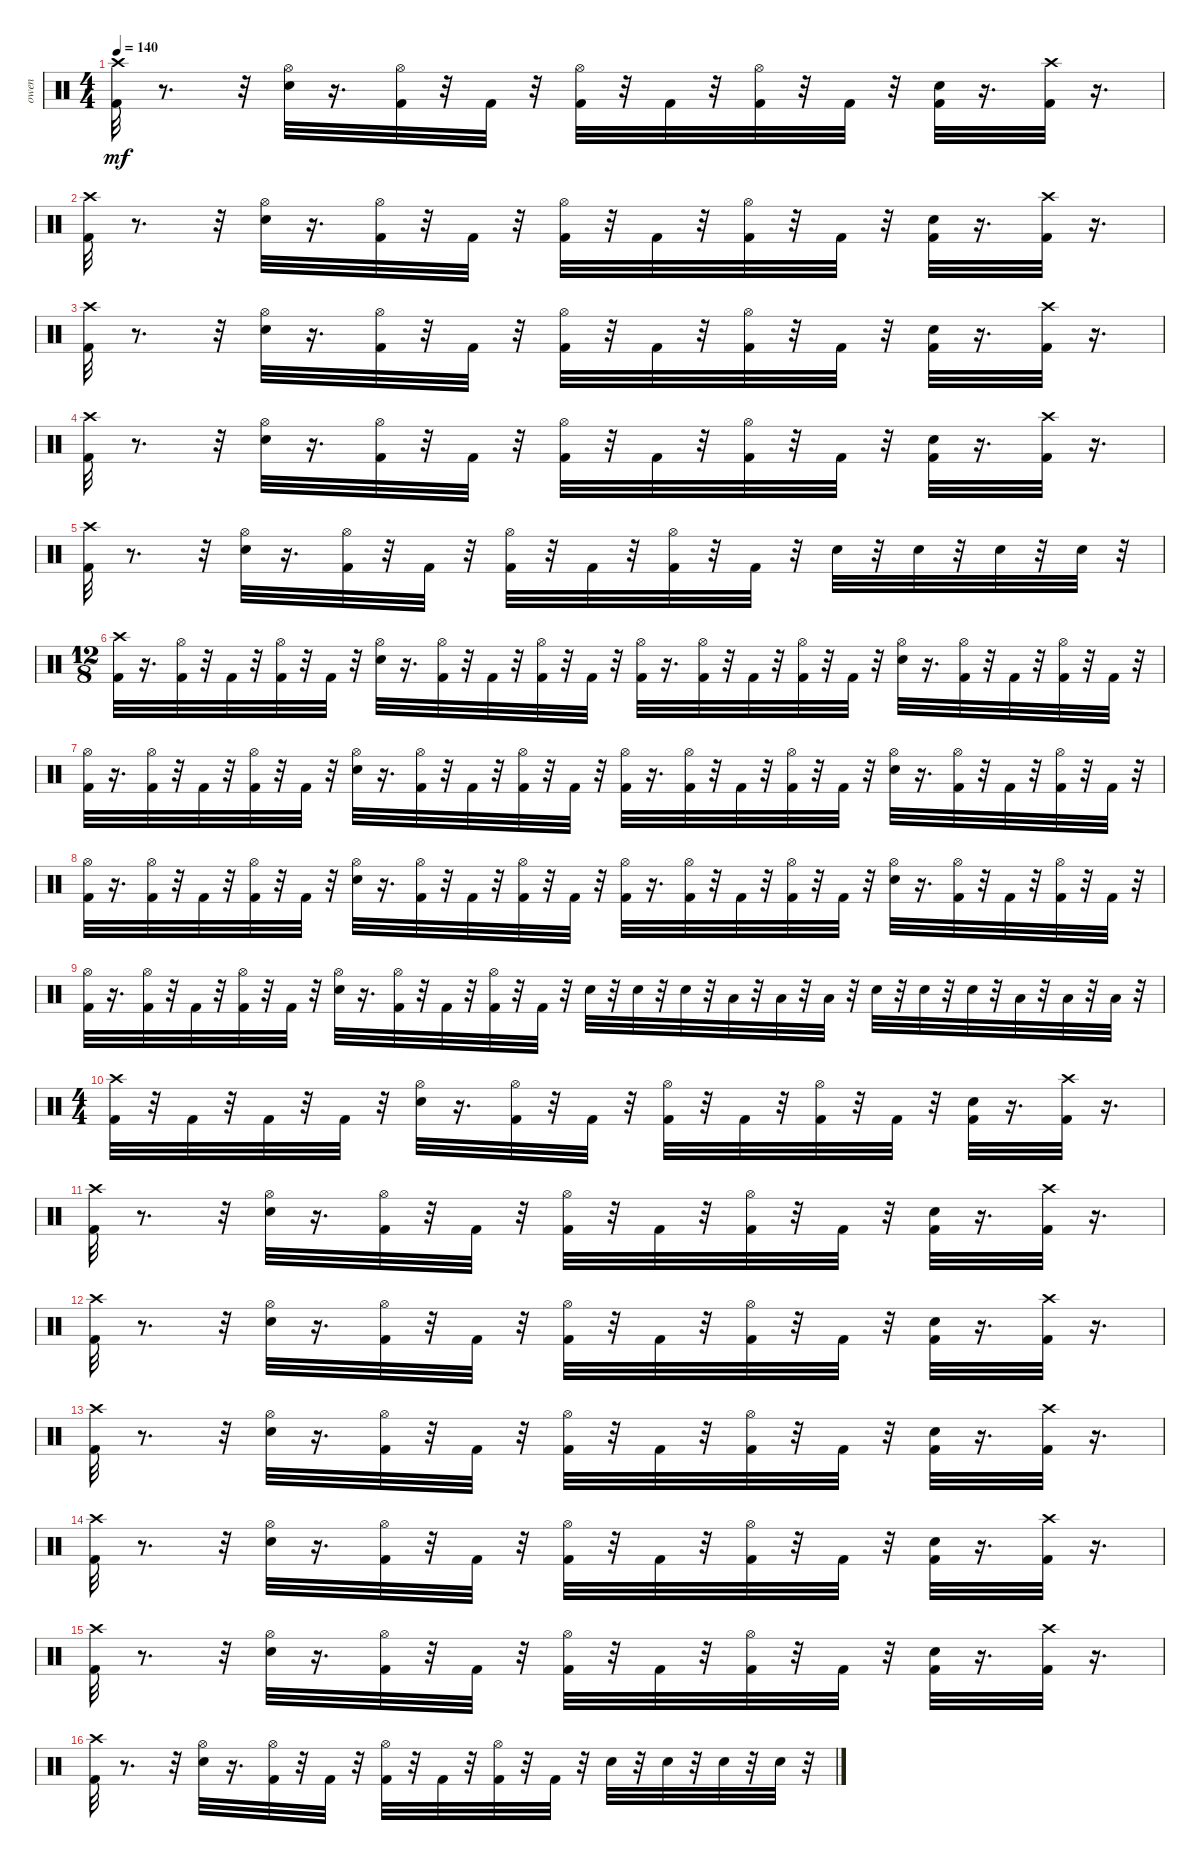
\track ("owen" "owen") {instrument percussion}
\staff {score}
\articulation defaults
\ts (4 4)
\tempo 140
\clef neutral
\ks c
("Kick (hit) 2" "Crash high (hit)").32{dy mf} r.8{d} r.32 ("Snare (hit) 2" "Hi-Hat (open)").32 r.16{d} ("Kick (hit) 2" "Hi-Hat (open)").32 r.32 "Kick (hit) 2".32 r.32 ("Kick (hit) 2" "Hi-Hat (open)").32 r.32 "Kick (hit) 2".32 r.32 ("Kick (hit) 2" "Hi-Hat (open)").32 r.32 "Kick (hit) 2".32 r.32 ("Kick (hit) 2" "Snare (hit) 2").32 r.16{d} ("Kick (hit) 2" "Crash high (hit)").32 r.16{d} |
("Kick (hit) 2" "Crash high (hit)").32 r.8{d} r.32 ("Snare (hit) 2" "Hi-Hat (open)").32 r.16{d} ("Kick (hit) 2" "Hi-Hat (open)").32 r.32 "Kick (hit) 2".32 r.32 ("Kick (hit) 2" "Hi-Hat (open)").32 r.32 "Kick (hit) 2".32 r.32 ("Kick (hit) 2" "Hi-Hat (open)").32 r.32 "Kick (hit) 2".32 r.32 ("Kick (hit) 2" "Snare (hit) 2").32 r.16{d} ("Kick (hit) 2" "Crash high (hit)").32 r.16{d} |
("Kick (hit) 2" "Crash high (hit)").32 r.8{d} r.32 ("Snare (hit) 2" "Hi-Hat (open)").32 r.16{d} ("Kick (hit) 2" "Hi-Hat (open)").32 r.32 "Kick (hit) 2".32 r.32 ("Kick (hit) 2" "Hi-Hat (open)").32 r.32 "Kick (hit) 2".32 r.32 ("Kick (hit) 2" "Hi-Hat (open)").32 r.32 "Kick (hit) 2".32 r.32 ("Kick (hit) 2" "Snare (hit) 2").32 r.16{d} ("Kick (hit) 2" "Crash high (hit)").32 r.16{d} |
("Kick (hit) 2" "Crash high (hit)").32 r.8{d} r.32 ("Snare (hit) 2" "Hi-Hat (open)").32 r.16{d} ("Kick (hit) 2" "Hi-Hat (open)").32 r.32 "Kick (hit) 2".32 r.32 ("Kick (hit) 2" "Hi-Hat (open)").32 r.32 "Kick (hit) 2".32 r.32 ("Kick (hit) 2" "Hi-Hat (open)").32 r.32 "Kick (hit) 2".32 r.32 ("Kick (hit) 2" "Snare (hit) 2").32 r.16{d} ("Kick (hit) 2" "Crash high (hit)").32 r.16{d} |
("Kick (hit) 2" "Crash high (hit)").32 r.8{d} r.32 ("Snare (hit) 2" "Hi-Hat (open)").32 r.16{d} ("Kick (hit) 2" "Hi-Hat (open)").32 r.32 "Kick (hit) 2".32 r.32 ("Kick (hit) 2" "Hi-Hat (open)").32 r.32 "Kick (hit) 2".32 r.32 ("Kick (hit) 2" "Hi-Hat (open)").32 r.32 "Kick (hit) 2".32 r.32 "Snare (hit) 2".32 r.32 "Snare (hit) 2".32 r.32 "Snare (hit) 2".32 r.32 "Snare (hit) 2".32 r.32 |
\ts (12 8)
("Kick (hit) 2" "Crash high (hit)").32 r.16{d} ("Kick (hit) 2" "Hi-Hat (open)").32 r.32 "Kick (hit) 2".32 r.32 ("Kick (hit) 2" "Hi-Hat (open)").32 r.32 "Kick (hit) 2".32 r.32 ("Snare (hit) 2" "Hi-Hat (open)").32 r.16{d} ("Kick (hit) 2" "Hi-Hat (open)").32 r.32 "Kick (hit) 2".32 r.32 ("Kick (hit) 2" "Hi-Hat (open)").32 r.32 "Kick (hit) 2".32 r.32 ("Kick (hit) 2" "Hi-Hat (open)").32 r.16{d} ("Kick (hit) 2" "Hi-Hat (open)").32 r.32 "Kick (hit) 2".32 r.32 ("Kick (hit) 2" "Hi-Hat (open)").32 r.32 "Kick (hit) 2".32 r.32 ("Snare (hit) 2" "Hi-Hat (open)").32 r.16{d} ("Kick (hit) 2" "Hi-Hat (open)").32 r.32 "Kick (hit) 2".32 r.32 ("Kick (hit) 2" "Hi-Hat (open)").32 r.32 "Kick (hit) 2".32 r.32 |
("Kick (hit) 2" "Hi-Hat (open)").32 r.16{d} ("Kick (hit) 2" "Hi-Hat (open)").32 r.32 "Kick (hit) 2".32 r.32 ("Kick (hit) 2" "Hi-Hat (open)").32 r.32 "Kick (hit) 2".32 r.32 ("Snare (hit) 2" "Hi-Hat (open)").32 r.16{d} ("Kick (hit) 2" "Hi-Hat (open)").32 r.32 "Kick (hit) 2".32 r.32 ("Kick (hit) 2" "Hi-Hat (open)").32 r.32 "Kick (hit) 2".32 r.32 ("Kick (hit) 2" "Hi-Hat (open)").32 r.16{d} ("Kick (hit) 2" "Hi-Hat (open)").32 r.32 "Kick (hit) 2".32 r.32 ("Kick (hit) 2" "Hi-Hat (open)").32 r.32 "Kick (hit) 2".32 r.32 ("Snare (hit) 2" "Hi-Hat (open)").32 r.16{d} ("Kick (hit) 2" "Hi-Hat (open)").32 r.32 "Kick (hit) 2".32 r.32 ("Kick (hit) 2" "Hi-Hat (open)").32 r.32 "Kick (hit) 2".32 r.32 |
("Kick (hit) 2" "Hi-Hat (open)").32 r.16{d} ("Kick (hit) 2" "Hi-Hat (open)").32 r.32 "Kick (hit) 2".32 r.32 ("Kick (hit) 2" "Hi-Hat (open)").32 r.32 "Kick (hit) 2".32 r.32 ("Snare (hit) 2" "Hi-Hat (open)").32 r.16{d} ("Kick (hit) 2" "Hi-Hat (open)").32 r.32 "Kick (hit) 2".32 r.32 ("Kick (hit) 2" "Hi-Hat (open)").32 r.32 "Kick (hit) 2".32 r.32 ("Kick (hit) 2" "Hi-Hat (open)").32 r.16{d} ("Kick (hit) 2" "Hi-Hat (open)").32 r.32 "Kick (hit) 2".32 r.32 ("Kick (hit) 2" "Hi-Hat (open)").32 r.32 "Kick (hit) 2".32 r.32 ("Snare (hit) 2" "Hi-Hat (open)").32 r.16{d} ("Kick (hit) 2" "Hi-Hat (open)").32 r.32 "Kick (hit) 2".32 r.32 ("Kick (hit) 2" "Hi-Hat (open)").32 r.32 "Kick (hit) 2".32 r.32 |
("Kick (hit) 2" "Hi-Hat (open)").32 r.16{d} ("Kick (hit) 2" "Hi-Hat (open)").32 r.32 "Kick (hit) 2".32 r.32 ("Kick (hit) 2" "Hi-Hat (open)").32 r.32 "Kick (hit) 2".32 r.32 ("Snare (hit) 2" "Hi-Hat (open)").32 r.16{d} ("Kick (hit) 2" "Hi-Hat (open)").32 r.32 "Kick (hit) 2".32 r.32 ("Kick (hit) 2" "Hi-Hat (open)").32 r.32 "Kick (hit) 2".32 r.32 "Snare (hit) 2".32 r.32 "Snare (hit) 2".32 r.32 "Snare (hit) 2".32 r.32 "Low Tom (hit)".32 r.32 "Low Tom (hit)".32 r.32 "Low Tom (hit)".32 r.32 "Snare (hit) 2".32 r.32 "Snare (hit) 2".32 r.32 "Snare (hit) 2".32 r.32 "Low Tom (hit)".32 r.32 "Low Tom (hit)".32 r.32 "Low Tom (hit)".32 r.32 |
\ts (4 4)
("Kick (hit) 2" "Crash high (hit)").32 r.32 "Kick (hit) 2".32 r.32 "Kick (hit) 2".32 r.32 "Kick (hit) 2".32 r.32 ("Snare (hit) 2" "Hi-Hat (open)").32 r.16{d} ("Kick (hit) 2" "Hi-Hat (open)").32 r.32 "Kick (hit) 2".32 r.32 ("Kick (hit) 2" "Hi-Hat (open)").32 r.32 "Kick (hit) 2".32 r.32 ("Kick (hit) 2" "Hi-Hat (open)").32 r.32 "Kick (hit) 2".32 r.32 ("Kick (hit) 2" "Snare (hit) 2").32 r.16{d} ("Kick (hit) 2" "Crash high (hit)").32 r.16{d} |
("Kick (hit) 2" "Crash high (hit)").32 r.8{d} r.32 ("Snare (hit) 2" "Hi-Hat (open)").32 r.16{d} ("Kick (hit) 2" "Hi-Hat (open)").32 r.32 "Kick (hit) 2".32 r.32 ("Kick (hit) 2" "Hi-Hat (open)").32 r.32 "Kick (hit) 2".32 r.32 ("Kick (hit) 2" "Hi-Hat (open)").32 r.32 "Kick (hit) 2".32 r.32 ("Kick (hit) 2" "Snare (hit) 2").32 r.16{d} ("Kick (hit) 2" "Crash high (hit)").32 r.16{d} |
("Kick (hit) 2" "Crash high (hit)").32 r.8{d} r.32 ("Snare (hit) 2" "Hi-Hat (open)").32 r.16{d} ("Kick (hit) 2" "Hi-Hat (open)").32 r.32 "Kick (hit) 2".32 r.32 ("Kick (hit) 2" "Hi-Hat (open)").32 r.32 "Kick (hit) 2".32 r.32 ("Kick (hit) 2" "Hi-Hat (open)").32 r.32 "Kick (hit) 2".32 r.32 ("Kick (hit) 2" "Snare (hit) 2").32 r.16{d} ("Kick (hit) 2" "Crash high (hit)").32 r.16{d} |
("Kick (hit) 2" "Crash high (hit)").32 r.8{d} r.32 ("Snare (hit) 2" "Hi-Hat (open)").32 r.16{d} ("Kick (hit) 2" "Hi-Hat (open)").32 r.32 "Kick (hit) 2".32 r.32 ("Kick (hit) 2" "Hi-Hat (open)").32 r.32 "Kick (hit) 2".32 r.32 ("Kick (hit) 2" "Hi-Hat (open)").32 r.32 "Kick (hit) 2".32 r.32 ("Kick (hit) 2" "Snare (hit) 2").32 r.16{d} ("Kick (hit) 2" "Crash high (hit)").32 r.16{d} |
("Kick (hit) 2" "Crash high (hit)").32 r.8{d} r.32 ("Snare (hit) 2" "Hi-Hat (open)").32 r.16{d} ("Kick (hit) 2" "Hi-Hat (open)").32 r.32 "Kick (hit) 2".32 r.32 ("Kick (hit) 2" "Hi-Hat (open)").32 r.32 "Kick (hit) 2".32 r.32 ("Kick (hit) 2" "Hi-Hat (open)").32 r.32 "Kick (hit) 2".32 r.32 ("Kick (hit) 2" "Snare (hit) 2").32 r.16{d} ("Kick (hit) 2" "Crash high (hit)").32 r.16{d} |
("Kick (hit) 2" "Crash high (hit)").32 r.8{d} r.32 ("Snare (hit) 2" "Hi-Hat (open)").32 r.16{d} ("Kick (hit) 2" "Hi-Hat (open)").32 r.32 "Kick (hit) 2".32 r.32 ("Kick (hit) 2" "Hi-Hat (open)").32 r.32 "Kick (hit) 2".32 r.32 ("Kick (hit) 2" "Hi-Hat (open)").32 r.32 "Kick (hit) 2".32 r.32 ("Kick (hit) 2" "Snare (hit) 2").32 r.16{d} ("Kick (hit) 2" "Crash high (hit)").32 r.16{d} |
("Kick (hit) 2" "Crash high (hit)").32 r.8{d} r.32 ("Snare (hit) 2" "Hi-Hat (open)").32 r.16{d} ("Kick (hit) 2" "Hi-Hat (open)").32 r.32 "Kick (hit) 2".32 r.32 ("Kick (hit) 2" "Hi-Hat (open)").32 r.32 "Kick (hit) 2".32 r.32 ("Kick (hit) 2" "Hi-Hat (open)").32 r.32 "Kick (hit) 2".32 r.32 "Snare (hit) 2".32 r.32 "Snare (hit) 2".32 r.32 "Snare (hit) 2".32 r.32 "Snare (hit) 2".32 r.32
